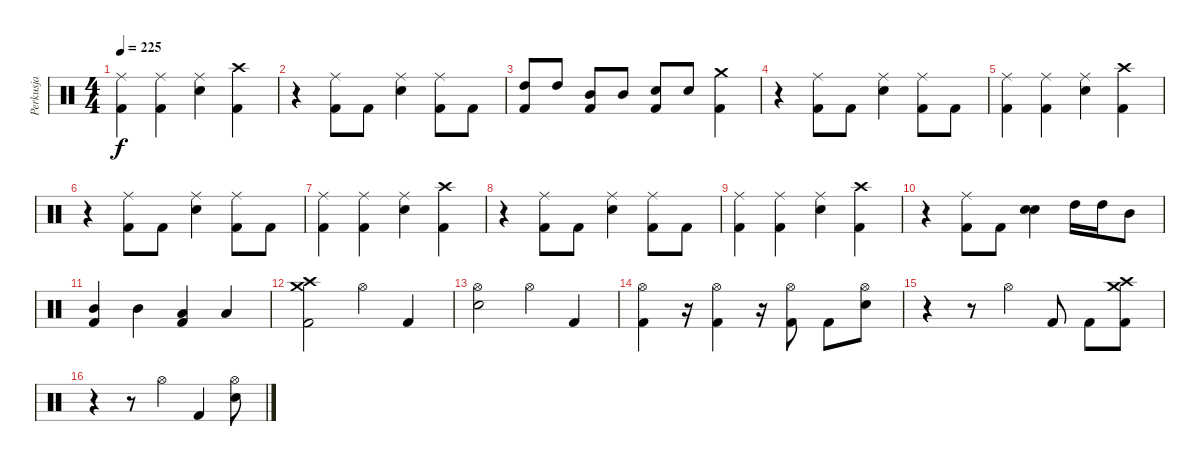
\track ("Perkusja" "Perkusja") {instrument percussion}
\staff {score}
\articulation defaults
\ts (4 4)
\tempo 225
\clef neutral
\ks c
("Ride (middle)" "Kick (hit) 2").4{dy f} ("Ride (middle)" "Kick (hit) 2").4 ("Ride (middle)" "Snare (hit) 2").4 ("Crash high (hit)" "Kick (hit) 2").4 |
r.4 ("Ride (middle)" "Kick (hit) 2").8 "Kick (hit) 2".8 ("Ride (middle)" "Snare (hit) 2").4 ("Ride (middle)" "Kick (hit) 2").8 "Kick (hit) 2".8 |
("High Tom (hit)" "Kick (hit) 2").8 "High Tom (hit)".8 ("Mid Tom (hit)" "Kick (hit) 2").8 "Mid Tom (hit)".8 ("Snare (hit) 2" "Kick (hit) 2").8 "Snare (hit) 2".8 ("Crash medium (hit)" "Kick (hit) 2").4 |
r.4 ("Ride (middle)" "Kick (hit) 2").8 "Kick (hit) 2".8 ("Ride (middle)" "Snare (hit) 2").4 ("Ride (middle)" "Kick (hit) 2").8 "Kick (hit) 2".8 |
("Ride (middle)" "Kick (hit) 2").4 ("Ride (middle)" "Kick (hit) 2").4 ("Ride (middle)" "Snare (hit) 2").4 ("Crash high (hit)" "Kick (hit) 2").4 |
r.4 ("Ride (middle)" "Kick (hit) 2").8 "Kick (hit) 2".8 ("Ride (middle)" "Snare (hit) 2").4 ("Ride (middle)" "Kick (hit) 2").8 "Kick (hit) 2".8 |
("Ride (middle)" "Kick (hit) 2").4 ("Ride (middle)" "Kick (hit) 2").4 ("Ride (middle)" "Snare (hit) 2").4 ("Crash high (hit)" "Kick (hit) 2").4 |
r.4 ("Ride (middle)" "Kick (hit) 2").8 "Kick (hit) 2".8 ("Ride (middle)" "Snare (hit) 2").4 ("Ride (middle)" "Kick (hit) 2").8 "Kick (hit) 2".8 |
("Ride (middle)" "Kick (hit) 2").4 ("Ride (middle)" "Kick (hit) 2").4 ("Ride (middle)" "Snare (hit) 2").4 ("Crash high (hit)" "Kick (hit) 2").4 |
r.4 ("Ride (middle)" "Kick (hit) 2").8 "Kick (hit) 2".8 ("Snare (hit) 2" "Snare (hit) 2").4 "High Tom (hit)".16 "High Tom (hit)".16 "Mid Tom (hit)".8 |
("Mid Tom (hit)" "Kick (hit) 2").4 "Mid Tom (hit)".4 ("Low Tom (hit)" "Kick (hit) 2").4 "Low Tom (hit)".4 |
("Crash high (hit)" "Crash medium (hit)" "Kick (hit) 2").2 "Hi-Hat (open)".4 "Kick (hit) 2".4 |
("Hi-Hat (open)" "Snare (hit) 2").2 "Hi-Hat (open)".4 "Kick (hit) 2".4 |
("Hi-Hat (open)" "Kick (hit) 2").4 r.16 ("Hi-Hat (open)" "Kick (hit) 2").4 r.16 ("Hi-Hat (open)" "Kick (hit) 2").8 "Kick (hit) 2".8 ("Hi-Hat (open)" "Snare (hit) 2").8 |
r.4 r.8 "Hi-Hat (open)".4 "Kick (hit) 2".8 "Kick (hit) 2".8 ("Crash high (hit)" "Crash medium (hit)" "Kick (hit) 2").8 |
r.4 r.8 "Hi-Hat (open)".4 "Kick (hit) 2".4 ("Hi-Hat (open)" "Snare (hit) 2").8
